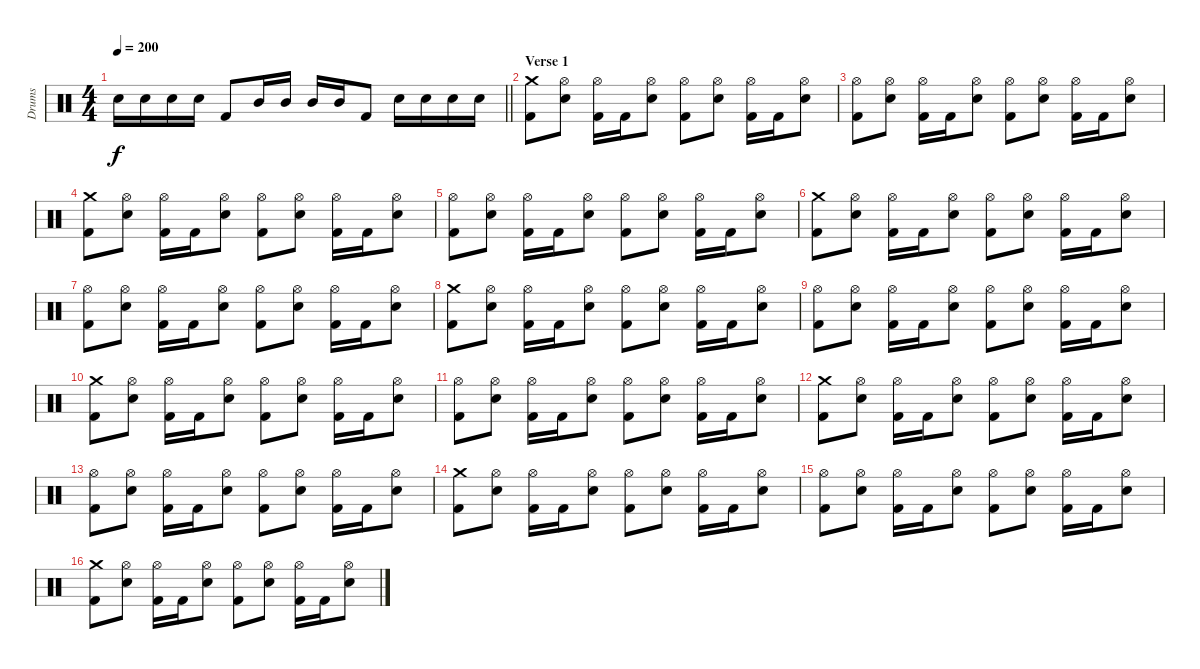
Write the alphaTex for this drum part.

\track ("Drums" "Drums") {instrument percussion}
\staff {score}
\articulation defaults
\ts (4 4)
\tempo 200
\clef neutral
\barLineRight lightlight
\ks c "Electric Snare (hit)".16{dy f} "Electric Snare (hit)".16 "Electric Snare (hit)".16 "Electric Snare (hit)".16 "Kick (hit) 2".8 "Mid Tom (hit)".16 "Mid Tom (hit)".16 "Mid Tom (hit)".16 "Mid Tom (hit)".16 "Kick (hit) 2".8 "Electric Snare (hit)".16 "Electric Snare (hit)".16 "Electric Snare (hit)".16 "Electric Snare (hit)".16
|
\section ("" "Verse 1")
("Crash medium (hit)" "Kick (hit) 2").8 ("Hi-Hat (open)" "Electric Snare (hit)").8 ("Hi-Hat (open)" "Kick (hit) 2").16 "Kick (hit) 2".16 ("Hi-Hat (open)" "Electric Snare (hit)").8 ("Hi-Hat (open)" "Kick (hit) 2").8 ("Hi-Hat (open)" "Electric Snare (hit)").8 ("Hi-Hat (open)" "Kick (hit) 2").16 "Kick (hit) 2".16 ("Hi-Hat (open)" "Electric Snare (hit)").8 |
("Hi-Hat (open)" "Kick (hit) 2").8 ("Hi-Hat (open)" "Electric Snare (hit)").8 ("Hi-Hat (open)" "Kick (hit) 2").16 "Kick (hit) 2".16 ("Hi-Hat (open)" "Electric Snare (hit)").8 ("Hi-Hat (open)" "Kick (hit) 2").8 ("Hi-Hat (open)" "Electric Snare (hit)").8 ("Hi-Hat (open)" "Kick (hit) 2").16 "Kick (hit) 2".16 ("Hi-Hat (open)" "Electric Snare (hit)").8 |
("Crash medium (hit)" "Kick (hit) 2").8 ("Hi-Hat (open)" "Electric Snare (hit)").8 ("Hi-Hat (open)" "Kick (hit) 2").16 "Kick (hit) 2".16 ("Hi-Hat (open)" "Electric Snare (hit)").8 ("Hi-Hat (open)" "Kick (hit) 2").8 ("Hi-Hat (open)" "Electric Snare (hit)").8 ("Hi-Hat (open)" "Kick (hit) 2").16 "Kick (hit) 2".16 ("Hi-Hat (open)" "Electric Snare (hit)").8 |
("Hi-Hat (open)" "Kick (hit) 2").8 ("Hi-Hat (open)" "Electric Snare (hit)").8 ("Hi-Hat (open)" "Kick (hit) 2").16 "Kick (hit) 2".16 ("Hi-Hat (open)" "Electric Snare (hit)").8 ("Hi-Hat (open)" "Kick (hit) 2").8 ("Hi-Hat (open)" "Electric Snare (hit)").8 ("Hi-Hat (open)" "Kick (hit) 2").16 "Kick (hit) 2".16 ("Hi-Hat (open)" "Electric Snare (hit)").8 |
("Crash medium (hit)" "Kick (hit) 2").8 ("Hi-Hat (open)" "Electric Snare (hit)").8 ("Hi-Hat (open)" "Kick (hit) 2").16 "Kick (hit) 2".16 ("Hi-Hat (open)" "Electric Snare (hit)").8 ("Hi-Hat (open)" "Kick (hit) 2").8 ("Hi-Hat (open)" "Electric Snare (hit)").8 ("Hi-Hat (open)" "Kick (hit) 2").16 "Kick (hit) 2".16 ("Hi-Hat (open)" "Electric Snare (hit)").8 |
("Hi-Hat (open)" "Kick (hit) 2").8 ("Hi-Hat (open)" "Electric Snare (hit)").8 ("Hi-Hat (open)" "Kick (hit) 2").16 "Kick (hit) 2".16 ("Hi-Hat (open)" "Electric Snare (hit)").8 ("Hi-Hat (open)" "Kick (hit) 2").8 ("Hi-Hat (open)" "Electric Snare (hit)").8 ("Hi-Hat (open)" "Kick (hit) 2").16 "Kick (hit) 2".16 ("Hi-Hat (open)" "Electric Snare (hit)").8 |
("Crash medium (hit)" "Kick (hit) 2").8 ("Hi-Hat (open)" "Electric Snare (hit)").8 ("Hi-Hat (open)" "Kick (hit) 2").16 "Kick (hit) 2".16 ("Hi-Hat (open)" "Electric Snare (hit)").8 ("Hi-Hat (open)" "Kick (hit) 2").8 ("Hi-Hat (open)" "Electric Snare (hit)").8 ("Hi-Hat (open)" "Kick (hit) 2").16 "Kick (hit) 2".16 ("Hi-Hat (open)" "Electric Snare (hit)").8 |
("Hi-Hat (open)" "Kick (hit) 2").8 ("Hi-Hat (open)" "Electric Snare (hit)").8 ("Hi-Hat (open)" "Kick (hit) 2").16 "Kick (hit) 2".16 ("Hi-Hat (open)" "Electric Snare (hit)").8 ("Hi-Hat (open)" "Kick (hit) 2").8 ("Hi-Hat (open)" "Electric Snare (hit)").8 ("Hi-Hat (open)" "Kick (hit) 2").16 "Kick (hit) 2".16 ("Hi-Hat (open)" "Electric Snare (hit)").8 |
("Crash medium (hit)" "Kick (hit) 2").8 ("Hi-Hat (open)" "Electric Snare (hit)").8 ("Hi-Hat (open)" "Kick (hit) 2").16 "Kick (hit) 2".16 ("Hi-Hat (open)" "Electric Snare (hit)").8 ("Hi-Hat (open)" "Kick (hit) 2").8 ("Hi-Hat (open)" "Electric Snare (hit)").8 ("Hi-Hat (open)" "Kick (hit) 2").16 "Kick (hit) 2".16 ("Hi-Hat (open)" "Electric Snare (hit)").8 |
("Hi-Hat (open)" "Kick (hit) 2").8 ("Hi-Hat (open)" "Electric Snare (hit)").8 ("Hi-Hat (open)" "Kick (hit) 2").16 "Kick (hit) 2".16 ("Hi-Hat (open)" "Electric Snare (hit)").8 ("Hi-Hat (open)" "Kick (hit) 2").8 ("Hi-Hat (open)" "Electric Snare (hit)").8 ("Hi-Hat (open)" "Kick (hit) 2").16 "Kick (hit) 2".16 ("Hi-Hat (open)" "Electric Snare (hit)").8 |
("Crash medium (hit)" "Kick (hit) 2").8 ("Hi-Hat (open)" "Electric Snare (hit)").8 ("Hi-Hat (open)" "Kick (hit) 2").16 "Kick (hit) 2".16 ("Hi-Hat (open)" "Electric Snare (hit)").8 ("Hi-Hat (open)" "Kick (hit) 2").8 ("Hi-Hat (open)" "Electric Snare (hit)").8 ("Hi-Hat (open)" "Kick (hit) 2").16 "Kick (hit) 2".16 ("Hi-Hat (open)" "Electric Snare (hit)").8 |
("Hi-Hat (open)" "Kick (hit) 2").8 ("Hi-Hat (open)" "Electric Snare (hit)").8 ("Hi-Hat (open)" "Kick (hit) 2").16 "Kick (hit) 2".16 ("Hi-Hat (open)" "Electric Snare (hit)").8 ("Hi-Hat (open)" "Kick (hit) 2").8 ("Hi-Hat (open)" "Electric Snare (hit)").8 ("Hi-Hat (open)" "Kick (hit) 2").16 "Kick (hit) 2".16 ("Hi-Hat (open)" "Electric Snare (hit)").8 |
("Crash medium (hit)" "Kick (hit) 2").8 ("Hi-Hat (open)" "Electric Snare (hit)").8 ("Hi-Hat (open)" "Kick (hit) 2").16 "Kick (hit) 2".16 ("Hi-Hat (open)" "Electric Snare (hit)").8 ("Hi-Hat (open)" "Kick (hit) 2").8 ("Hi-Hat (open)" "Electric Snare (hit)").8 ("Hi-Hat (open)" "Kick (hit) 2").16 "Kick (hit) 2".16 ("Hi-Hat (open)" "Electric Snare (hit)").8 |
("Hi-Hat (open)" "Kick (hit) 2").8 ("Hi-Hat (open)" "Electric Snare (hit)").8 ("Hi-Hat (open)" "Kick (hit) 2").16 "Kick (hit) 2".16 ("Hi-Hat (open)" "Electric Snare (hit)").8 ("Hi-Hat (open)" "Kick (hit) 2").8 ("Hi-Hat (open)" "Electric Snare (hit)").8 ("Hi-Hat (open)" "Kick (hit) 2").16 "Kick (hit) 2".16 ("Hi-Hat (open)" "Electric Snare (hit)").8 |
("Crash medium (hit)" "Kick (hit) 2").8 ("Hi-Hat (open)" "Electric Snare (hit)").8 ("Hi-Hat (open)" "Kick (hit) 2").16 "Kick (hit) 2".16 ("Hi-Hat (open)" "Electric Snare (hit)").8 ("Hi-Hat (open)" "Kick (hit) 2").8 ("Hi-Hat (open)" "Electric Snare (hit)").8 ("Hi-Hat (open)" "Kick (hit) 2").16 "Kick (hit) 2".16 ("Hi-Hat (open)" "Electric Snare (hit)").8
